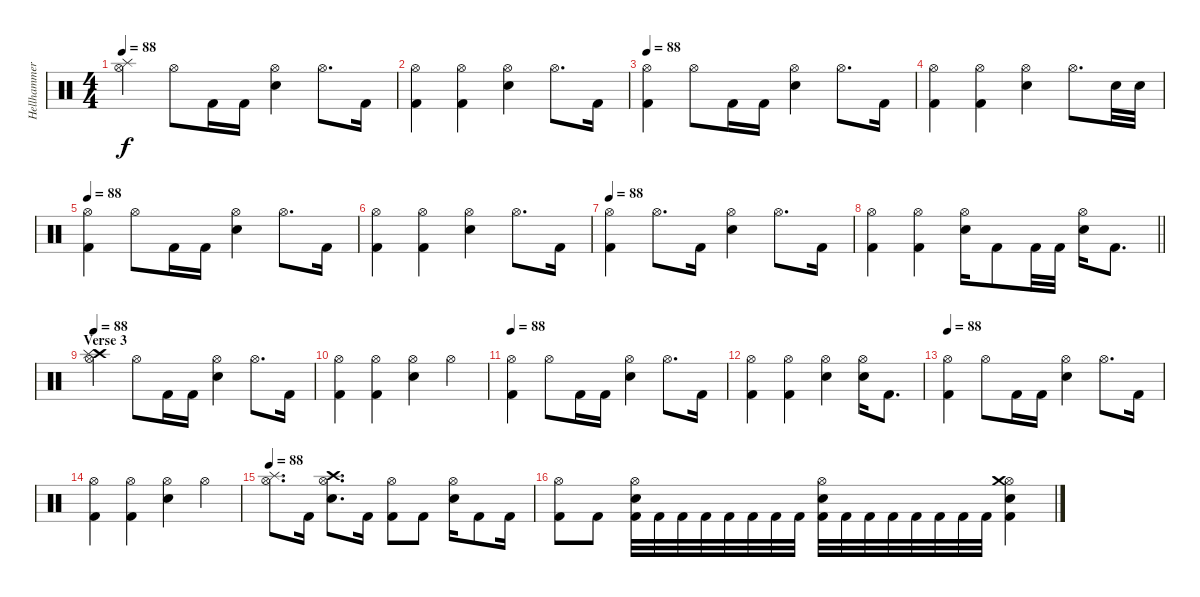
\track ("Hellhammer" "Hellhammer") {instrument percussion}
\staff {score}
\articulation defaults
\ts (4 4)
\tempo 88
\clef neutral
\ks c
("Hi-Hat (open)" "Splash (hit)").4{dy f} "Hi-Hat (open)".8 "Kick (hit) 2".16 "Kick (hit) 2".16 ("Hi-Hat (open)" "Snare (hit) 2").4 "Hi-Hat (open)".8{d} "Kick (hit) 2".16 |
("Hi-Hat (open)" "Kick (hit) 2").4 ("Hi-Hat (open)" "Kick (hit) 2").4 ("Hi-Hat (open)" "Snare (hit) 2").4 "Hi-Hat (open)".8{d} "Kick (hit) 2".16 |
\tempo 88
("Hi-Hat (open)" "Kick (hit) 2").4 "Hi-Hat (open)".8 "Kick (hit) 2".16 "Kick (hit) 2".16 ("Hi-Hat (open)" "Snare (hit) 2").4 "Hi-Hat (open)".8{d} "Kick (hit) 2".16 |
("Hi-Hat (open)" "Kick (hit) 2").4 ("Hi-Hat (open)" "Kick (hit) 2").4 ("Hi-Hat (open)" "Snare (hit) 2").4 "Hi-Hat (open)".8{d} "Snare (hit) 2".32 "Snare (hit) 2".32 |
\tempo 88
("Hi-Hat (open)" "Kick (hit) 2").4 "Hi-Hat (open)".8 "Kick (hit) 2".16 "Kick (hit) 2".16 ("Hi-Hat (open)" "Snare (hit) 2").4 "Hi-Hat (open)".8{d} "Kick (hit) 2".16 |
("Hi-Hat (open)" "Kick (hit) 2").4 ("Hi-Hat (open)" "Kick (hit) 2").4 ("Hi-Hat (open)" "Snare (hit) 2").4 "Hi-Hat (open)".8{d} "Kick (hit) 2".16 |
\tempo 88
("Hi-Hat (open)" "Kick (hit) 2").4 "Hi-Hat (open)".8{d} "Kick (hit) 2".16 ("Hi-Hat (open)" "Snare (hit) 2").4 "Hi-Hat (open)".8{d} "Kick (hit) 2".16 |
\barLineRight lightlight
("Hi-Hat (open)" "Kick (hit) 2").4 ("Hi-Hat (open)" "Kick (hit) 2").4 ("Hi-Hat (open)" "Snare (hit) 2").16 "Kick (hit) 2".8 "Kick (hit) 2".32 "Kick (hit) 2".32 ("Hi-Hat (open)" "Snare (hit) 2").16 "Kick (hit) 2".8{d} |
\section ("" "Verse 3")
\tempo 88
("Crash high (hit)" "Hi-Hat (open)" "Splash (hit)").4 "Hi-Hat (open)".8 "Kick (hit) 2".16 "Kick (hit) 2".16 ("Hi-Hat (open)" "Snare (hit) 2").4 "Hi-Hat (open)".8{d} "Kick (hit) 2".16 |
("Hi-Hat (open)" "Kick (hit) 2").4 ("Hi-Hat (open)" "Kick (hit) 2").4 ("Hi-Hat (open)" "Snare (hit) 2").4 "Hi-Hat (open)".4 |
\tempo 88
("Hi-Hat (open)" "Kick (hit) 2").4 "Hi-Hat (open)".8 "Kick (hit) 2".16 "Kick (hit) 2".16 ("Hi-Hat (open)" "Snare (hit) 2").4 "Hi-Hat (open)".8{d} "Kick (hit) 2".16 |
("Hi-Hat (open)" "Kick (hit) 2").4 ("Hi-Hat (open)" "Kick (hit) 2").4 ("Hi-Hat (open)" "Snare (hit) 2").4 ("Hi-Hat (open)" "Snare (hit) 2").16 "Kick (hit) 2".8{d} |
\tempo 88
("Hi-Hat (open)" "Kick (hit) 2").4 "Hi-Hat (open)".8 "Kick (hit) 2".16 "Kick (hit) 2".16 ("Hi-Hat (open)" "Snare (hit) 2").4 "Hi-Hat (open)".8{d} "Kick (hit) 2".16 |
("Hi-Hat (open)" "Kick (hit) 2").4 ("Hi-Hat (open)" "Kick (hit) 2").4 ("Hi-Hat (open)" "Snare (hit) 2").4 "Hi-Hat (open)".4 |
\tempo 88
("Hi-Hat (open)" "Splash (hit)").8{d} "Kick (hit) 2".16 ("Hi-Hat (open)" "Crash high (hit)" "Snare (hit) 2").8{d} "Kick (hit) 2".16 ("Hi-Hat (open)" "Kick (hit) 2").8 "Kick (hit) 2".8 ("Hi-Hat (open)" "Snare (hit) 2").16 "Kick (hit) 2".8 "Kick (hit) 2".16 |
("Hi-Hat (open)" "Kick (hit) 2").8 "Kick (hit) 2".8 ("Hi-Hat (open)" "Kick (hit) 2" "Snare (hit) 2").32 "Kick (hit) 2".32 "Kick (hit) 2".32 "Kick (hit) 2".32 "Kick (hit) 2".32 "Kick (hit) 2".32 "Kick (hit) 2".32 "Kick (hit) 2".32 ("Hi-Hat (open)" "Kick (hit) 2" "Snare (hit) 2").32 "Kick (hit) 2".32 "Kick (hit) 2".32 "Kick (hit) 2".32 "Kick (hit) 2".32 "Kick (hit) 2".32 "Kick (hit) 2".32 "Kick (hit) 2".32 ("Hi-Hat (open)" "Crash medium (hit)" "Kick (hit) 2" "Snare (hit) 2").4
